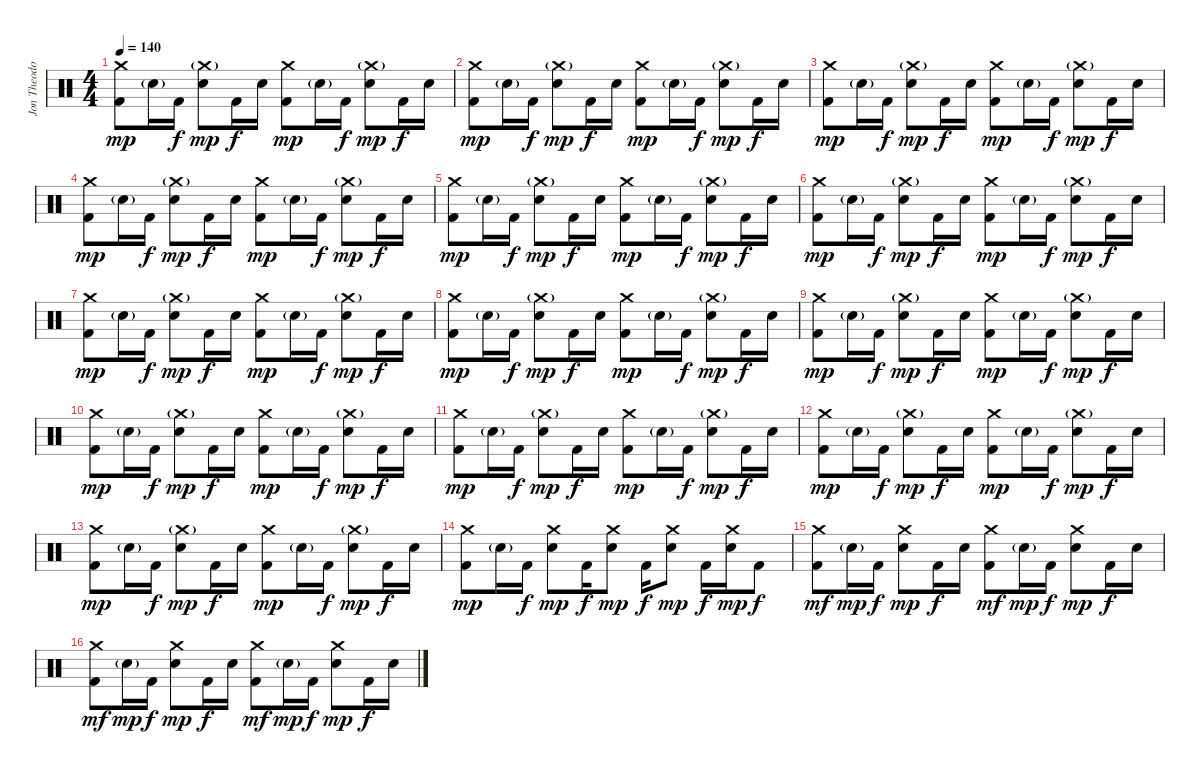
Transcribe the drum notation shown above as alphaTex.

\track ("Jon Theodore - Drums" "Jon Theodo") {instrument percussion}
\staff {score}
\articulation defaults
\ts (4 4)
\tempo 140
\clef neutral
\ks c
("Crash medium (hit)" "Kick (hit) 2").8{dy mp} "Electric Snare (hit)"{g}.16 "Kick (hit) 2".16{dy f} ("Crash medium (hit)"{g} "Electric Snare (hit)").8{dy mp} "Kick (hit) 2".16{dy f} "Electric Snare (hit)".16 ("Crash medium (hit)" "Kick (hit) 2").8{dy mp} "Electric Snare (hit)"{g}.16 "Kick (hit) 2".16{dy f} ("Crash medium (hit)"{g} "Electric Snare (hit)").8{dy mp} "Kick (hit) 2".16{dy f} "Electric Snare (hit)".16 |
("Crash medium (hit)" "Kick (hit) 2").8{dy mp} "Electric Snare (hit)"{g}.16 "Kick (hit) 2".16{dy f} ("Crash medium (hit)"{g} "Electric Snare (hit)").8{dy mp} "Kick (hit) 2".16{dy f} "Electric Snare (hit)".16 ("Crash medium (hit)" "Kick (hit) 2").8{dy mp} "Electric Snare (hit)"{g}.16 "Kick (hit) 2".16{dy f} ("Crash medium (hit)"{g} "Electric Snare (hit)").8{dy mp} "Kick (hit) 2".16{dy f} "Electric Snare (hit)".16 |
("Crash medium (hit)" "Kick (hit) 2").8{dy mp} "Electric Snare (hit)"{g}.16 "Kick (hit) 2".16{dy f} ("Crash medium (hit)"{g} "Electric Snare (hit)").8{dy mp} "Kick (hit) 2".16{dy f} "Electric Snare (hit)".16 ("Crash medium (hit)" "Kick (hit) 2").8{dy mp} "Electric Snare (hit)"{g}.16 "Kick (hit) 2".16{dy f} ("Crash medium (hit)"{g} "Electric Snare (hit)").8{dy mp} "Kick (hit) 2".16{dy f} "Electric Snare (hit)".16 |
("Crash medium (hit)" "Kick (hit) 2").8{dy mp} "Electric Snare (hit)"{g}.16 "Kick (hit) 2".16{dy f} ("Crash medium (hit)"{g} "Electric Snare (hit)").8{dy mp} "Kick (hit) 2".16{dy f} "Electric Snare (hit)".16 ("Crash medium (hit)" "Kick (hit) 2").8{dy mp} "Electric Snare (hit)"{g}.16 "Kick (hit) 2".16{dy f} ("Crash medium (hit)"{g} "Electric Snare (hit)").8{dy mp} "Kick (hit) 2".16{dy f} "Electric Snare (hit)".16 |
("Crash medium (hit)" "Kick (hit) 2").8{dy mp} "Electric Snare (hit)"{g}.16 "Kick (hit) 2".16{dy f} ("Crash medium (hit)"{g} "Electric Snare (hit)").8{dy mp} "Kick (hit) 2".16{dy f} "Electric Snare (hit)".16 ("Crash medium (hit)" "Kick (hit) 2").8{dy mp} "Electric Snare (hit)"{g}.16 "Kick (hit) 2".16{dy f} ("Crash medium (hit)"{g} "Electric Snare (hit)").8{dy mp} "Kick (hit) 2".16{dy f} "Electric Snare (hit)".16 |
("Crash medium (hit)" "Kick (hit) 2").8{dy mp} "Electric Snare (hit)"{g}.16 "Kick (hit) 2".16{dy f} ("Crash medium (hit)"{g} "Electric Snare (hit)").8{dy mp} "Kick (hit) 2".16{dy f} "Electric Snare (hit)".16 ("Crash medium (hit)" "Kick (hit) 2").8{dy mp} "Electric Snare (hit)"{g}.16 "Kick (hit) 2".16{dy f} ("Crash medium (hit)"{g} "Electric Snare (hit)").8{dy mp} "Kick (hit) 2".16{dy f} "Electric Snare (hit)".16 |
("Crash medium (hit)" "Kick (hit) 2").8{dy mp} "Electric Snare (hit)"{g}.16 "Kick (hit) 2".16{dy f} ("Crash medium (hit)"{g} "Electric Snare (hit)").8{dy mp} "Kick (hit) 2".16{dy f} "Electric Snare (hit)".16 ("Crash medium (hit)" "Kick (hit) 2").8{dy mp} "Electric Snare (hit)"{g}.16 "Kick (hit) 2".16{dy f} ("Crash medium (hit)"{g} "Electric Snare (hit)").8{dy mp} "Kick (hit) 2".16{dy f} "Electric Snare (hit)".16 |
("Crash medium (hit)" "Kick (hit) 2").8{dy mp} "Electric Snare (hit)"{g}.16 "Kick (hit) 2".16{dy f} ("Crash medium (hit)"{g} "Electric Snare (hit)").8{dy mp} "Kick (hit) 2".16{dy f} "Electric Snare (hit)".16 ("Crash medium (hit)" "Kick (hit) 2").8{dy mp} "Electric Snare (hit)"{g}.16 "Kick (hit) 2".16{dy f} ("Crash medium (hit)"{g} "Electric Snare (hit)").8{dy mp} "Kick (hit) 2".16{dy f} "Electric Snare (hit)".16 |
("Crash medium (hit)" "Kick (hit) 2").8{dy mp} "Electric Snare (hit)"{g}.16 "Kick (hit) 2".16{dy f} ("Crash medium (hit)"{g} "Electric Snare (hit)").8{dy mp} "Kick (hit) 2".16{dy f} "Electric Snare (hit)".16 ("Crash medium (hit)" "Kick (hit) 2").8{dy mp} "Electric Snare (hit)"{g}.16 "Kick (hit) 2".16{dy f} ("Crash medium (hit)"{g} "Electric Snare (hit)").8{dy mp} "Kick (hit) 2".16{dy f} "Electric Snare (hit)".16 |
("Crash medium (hit)" "Kick (hit) 2").8{dy mp} "Electric Snare (hit)"{g}.16 "Kick (hit) 2".16{dy f} ("Crash medium (hit)"{g} "Electric Snare (hit)").8{dy mp} "Kick (hit) 2".16{dy f} "Electric Snare (hit)".16 ("Crash medium (hit)" "Kick (hit) 2").8{dy mp} "Electric Snare (hit)"{g}.16 "Kick (hit) 2".16{dy f} ("Crash medium (hit)"{g} "Electric Snare (hit)").8{dy mp} "Kick (hit) 2".16{dy f} "Electric Snare (hit)".16 |
("Crash medium (hit)" "Kick (hit) 2").8{dy mp} "Electric Snare (hit)"{g}.16 "Kick (hit) 2".16{dy f} ("Crash medium (hit)"{g} "Electric Snare (hit)").8{dy mp} "Kick (hit) 2".16{dy f} "Electric Snare (hit)".16 ("Crash medium (hit)" "Kick (hit) 2").8{dy mp} "Electric Snare (hit)"{g}.16 "Kick (hit) 2".16{dy f} ("Crash medium (hit)"{g} "Electric Snare (hit)").8{dy mp} "Kick (hit) 2".16{dy f} "Electric Snare (hit)".16 |
("Crash medium (hit)" "Kick (hit) 2").8{dy mp} "Electric Snare (hit)"{g}.16 "Kick (hit) 2".16{dy f} ("Crash medium (hit)"{g} "Electric Snare (hit)").8{dy mp} "Kick (hit) 2".16{dy f} "Electric Snare (hit)".16 ("Crash medium (hit)" "Kick (hit) 2").8{dy mp} "Electric Snare (hit)"{g}.16 "Kick (hit) 2".16{dy f} ("Crash medium (hit)"{g} "Electric Snare (hit)").8{dy mp} "Kick (hit) 2".16{dy f} "Electric Snare (hit)".16 |
("Crash medium (hit)" "Kick (hit) 2").8{dy mp} "Electric Snare (hit)"{g}.16 "Kick (hit) 2".16{dy f} ("Crash medium (hit)"{g} "Electric Snare (hit)").8{dy mp} "Kick (hit) 2".16{dy f} "Electric Snare (hit)".16 ("Crash medium (hit)" "Kick (hit) 2").8{dy mp} "Electric Snare (hit)"{g}.16 "Kick (hit) 2".16{dy f} ("Crash medium (hit)"{g} "Electric Snare (hit)").8{dy mp} "Kick (hit) 2".16{dy f} "Electric Snare (hit)".16 |
("Crash medium (hit)" "Kick (hit) 2").8{dy mp} "Electric Snare (hit)"{g}.16 "Kick (hit) 2".16{dy f} ("Crash medium (hit)" "Electric Snare (hit)").8{dy mp} "Kick (hit) 2".16{dy f} ("Crash medium (hit)" "Electric Snare (hit)").8{dy mp} "Kick (hit) 2".16{dy f} ("Crash medium (hit)" "Electric Snare (hit)").8{dy mp} "Kick (hit) 2".16{dy f} ("Crash medium (hit)" "Electric Snare (hit)").16{dy mp} "Kick (hit) 2".8{dy f} |
("Crash medium (hit)" "Kick (hit) 2").8{dy mf} "Electric Snare (hit)"{g}.16{dy mp} "Kick (hit) 2".16{dy f} ("Crash medium (hit)" "Electric Snare (hit)").8{dy mp} "Kick (hit) 2".16{dy f} "Electric Snare (hit)".16 ("Crash medium (hit)" "Kick (hit) 2").8{dy mf} "Electric Snare (hit)"{g}.16{dy mp} "Kick (hit) 2".16{dy f} ("Crash medium (hit)" "Electric Snare (hit)").8{dy mp} "Kick (hit) 2".16{dy f} "Electric Snare (hit)".16 |
("Crash medium (hit)" "Kick (hit) 2").8{dy mf} "Electric Snare (hit)"{g}.16{dy mp} "Kick (hit) 2".16{dy f} ("Crash medium (hit)" "Electric Snare (hit)").8{dy mp} "Kick (hit) 2".16{dy f} "Electric Snare (hit)".16 ("Crash medium (hit)" "Kick (hit) 2").8{dy mf} "Electric Snare (hit)"{g}.16{dy mp} "Kick (hit) 2".16{dy f} ("Crash medium (hit)" "Electric Snare (hit)").8{dy mp} "Kick (hit) 2".16{dy f} "Electric Snare (hit)".16
